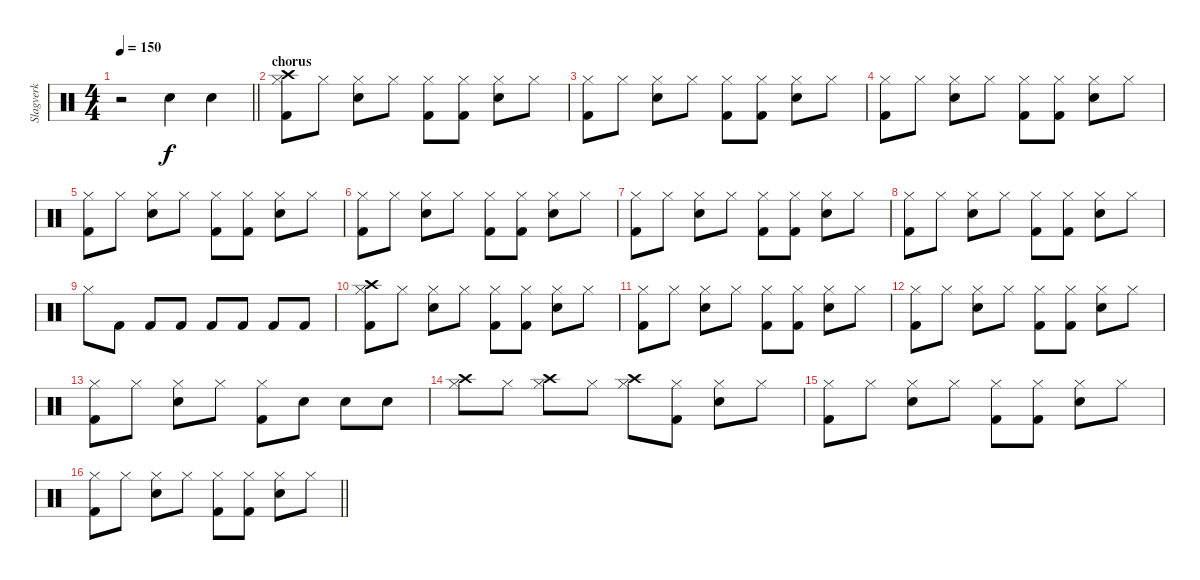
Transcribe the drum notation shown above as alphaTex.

\track ("Slagverk" "Slagverk") {instrument percussion}
\staff {score}
\articulation defaults
\ts (4 4)
\tempo 150
\clef neutral
\barLineRight lightlight
\ks c
r.2{dy f} "Snare (hit) 2".4 "Snare (hit) 2".4 |
\section ("" "chorus")
("Hi-Hat (closed)" "Kick (hit) 2" "Crash high (hit)").8 "Hi-Hat (closed)".8 ("Hi-Hat (closed)" "Snare (hit) 2").8 "Hi-Hat (closed)".8 ("Hi-Hat (closed)" "Kick (hit) 2").8 ("Hi-Hat (closed)" "Kick (hit) 2").8 ("Hi-Hat (closed)" "Snare (hit) 2").8 "Hi-Hat (closed)".8 |
("Hi-Hat (closed)" "Kick (hit) 2").8 "Hi-Hat (closed)".8 ("Hi-Hat (closed)" "Snare (hit) 2").8 "Hi-Hat (closed)".8 ("Hi-Hat (closed)" "Kick (hit) 2").8 ("Hi-Hat (closed)" "Kick (hit) 2").8 ("Hi-Hat (closed)" "Snare (hit) 2").8 "Hi-Hat (closed)".8 |
("Hi-Hat (closed)" "Kick (hit) 2").8 "Hi-Hat (closed)".8 ("Hi-Hat (closed)" "Snare (hit) 2").8 "Hi-Hat (closed)".8 ("Hi-Hat (closed)" "Kick (hit) 2").8 ("Hi-Hat (closed)" "Kick (hit) 2").8 ("Hi-Hat (closed)" "Snare (hit) 2").8 "Hi-Hat (closed)".8 |
("Hi-Hat (closed)" "Kick (hit) 2").8 "Hi-Hat (closed)".8 ("Hi-Hat (closed)" "Snare (hit) 2").8 "Hi-Hat (closed)".8 ("Hi-Hat (closed)" "Kick (hit) 2").8 ("Hi-Hat (closed)" "Kick (hit) 2").8 ("Hi-Hat (closed)" "Snare (hit) 2").8 "Hi-Hat (closed)".8 |
("Hi-Hat (closed)" "Kick (hit) 2").8 "Hi-Hat (closed)".8 ("Hi-Hat (closed)" "Snare (hit) 2").8 "Hi-Hat (closed)".8 ("Hi-Hat (closed)" "Kick (hit) 2").8 ("Hi-Hat (closed)" "Kick (hit) 2").8 ("Hi-Hat (closed)" "Snare (hit) 2").8 "Hi-Hat (closed)".8 |
("Hi-Hat (closed)" "Kick (hit) 2").8 "Hi-Hat (closed)".8 ("Hi-Hat (closed)" "Snare (hit) 2").8 "Hi-Hat (closed)".8 ("Hi-Hat (closed)" "Kick (hit) 2").8 ("Hi-Hat (closed)" "Kick (hit) 2").8 ("Hi-Hat (closed)" "Snare (hit) 2").8 "Hi-Hat (closed)".8 |
("Hi-Hat (closed)" "Kick (hit) 2").8 "Hi-Hat (closed)".8 ("Hi-Hat (closed)" "Snare (hit) 2").8 "Hi-Hat (closed)".8 ("Hi-Hat (closed)" "Kick (hit) 2").8 ("Hi-Hat (closed)" "Kick (hit) 2").8 ("Hi-Hat (closed)" "Snare (hit) 2").8 "Hi-Hat (closed)".8 |
"Hi-Hat (closed)".8 "Kick (hit) 2".8 "Kick (hit) 2".8 "Kick (hit) 2".8 "Kick (hit) 2".8 "Kick (hit) 2".8 "Kick (hit) 2".8 "Kick (hit) 2".8 |
("Hi-Hat (closed)" "Kick (hit) 2" "Crash high (hit)").8 "Hi-Hat (closed)".8 ("Hi-Hat (closed)" "Snare (hit) 2").8 "Hi-Hat (closed)".8 ("Hi-Hat (closed)" "Kick (hit) 2").8 ("Hi-Hat (closed)" "Kick (hit) 2").8 ("Hi-Hat (closed)" "Snare (hit) 2").8 "Hi-Hat (closed)".8 |
("Hi-Hat (closed)" "Kick (hit) 2").8 "Hi-Hat (closed)".8 ("Hi-Hat (closed)" "Snare (hit) 2").8 "Hi-Hat (closed)".8 ("Hi-Hat (closed)" "Kick (hit) 2").8 ("Hi-Hat (closed)" "Kick (hit) 2").8 ("Hi-Hat (closed)" "Snare (hit) 2").8 "Hi-Hat (closed)".8 |
("Hi-Hat (closed)" "Kick (hit) 2").8 "Hi-Hat (closed)".8 ("Hi-Hat (closed)" "Snare (hit) 2").8 "Hi-Hat (closed)".8 ("Hi-Hat (closed)" "Kick (hit) 2").8 ("Hi-Hat (closed)" "Kick (hit) 2").8 ("Hi-Hat (closed)" "Snare (hit) 2").8 "Hi-Hat (closed)".8 |
("Hi-Hat (closed)" "Kick (hit) 2").8 "Hi-Hat (closed)".8 ("Hi-Hat (closed)" "Snare (hit) 2").8 "Hi-Hat (closed)".8 ("Hi-Hat (closed)" "Kick (hit) 2").8 "Snare (hit) 2".8 "Snare (hit) 2".8 "Snare (hit) 2".8 |
("Hi-Hat (closed)" "Crash high (hit)").8 "Hi-Hat (closed)".8 ("Hi-Hat (closed)" "Crash high (hit)").8 "Hi-Hat (closed)".8 ("Hi-Hat (closed)" "Crash high (hit)").8 ("Hi-Hat (closed)" "Kick (hit) 2").8 ("Hi-Hat (closed)" "Snare (hit) 2").8 "Hi-Hat (closed)".8 |
("Hi-Hat (closed)" "Kick (hit) 2").8 "Hi-Hat (closed)".8 ("Hi-Hat (closed)" "Snare (hit) 2").8 "Hi-Hat (closed)".8 ("Hi-Hat (closed)" "Kick (hit) 2").8 ("Hi-Hat (closed)" "Kick (hit) 2").8 ("Hi-Hat (closed)" "Snare (hit) 2").8 "Hi-Hat (closed)".8 |
\barLineRight lightlight
("Hi-Hat (closed)" "Kick (hit) 2").8 "Hi-Hat (closed)".8 ("Hi-Hat (closed)" "Snare (hit) 2").8 "Hi-Hat (closed)".8 ("Hi-Hat (closed)" "Kick (hit) 2").8 ("Hi-Hat (closed)" "Kick (hit) 2").8 ("Hi-Hat (closed)" "Snare (hit) 2").8 "Hi-Hat (closed)".8
